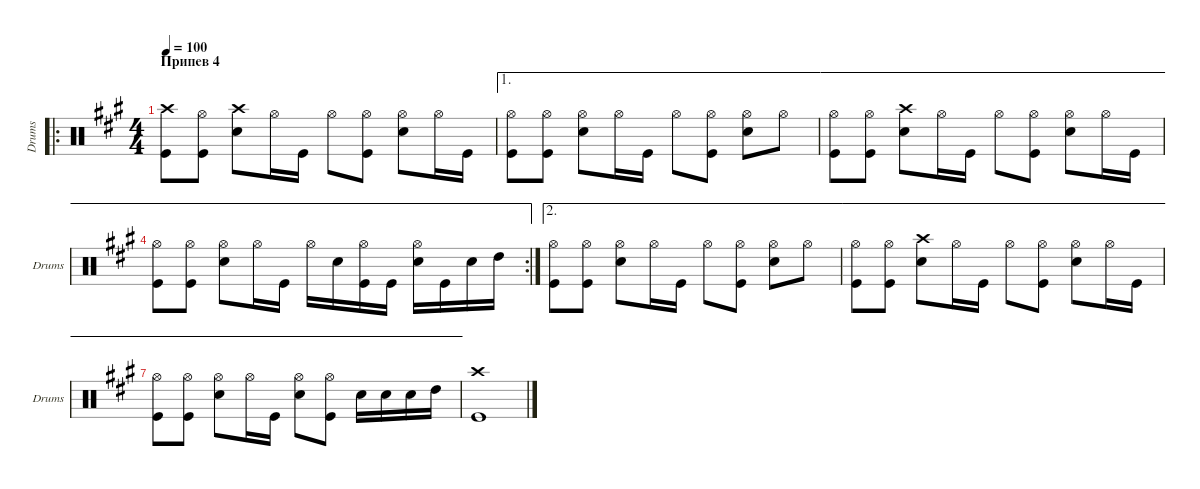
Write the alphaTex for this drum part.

\defaultSystemsLayout 4
\hideDynamics
\bracketExtendMode groupsimilarinstruments
\singleTrackTrackNamePolicy allsystems
\multiTrackTrackNamePolicy allsystems
\otherSystemsTrackNameOrientation horizontal
\defaultBarNumberDisplay FirstOfSystem
\track ("Drumkit" "Drums") {instrument percussion}
\staff {score}
\articulation defaults
\ro
\ts (4 4)
\section ("" "Припев 4")
\tempo 100
\clef neutral
\ks f#minor
("Kick (hit)" "Crash high (hit)").8{dy f} ("Kick (hit)" "Hi-Hat (open)").8 ("Snare (hit) 2" "Crash high (hit)").8 "Hi-Hat (open)".16 "Kick (hit)".16 "Hi-Hat (open)".8 ("Kick (hit)" "Hi-Hat (open)").8 ("Snare (hit) 2" "Hi-Hat (open)").8 "Hi-Hat (open)".16 "Kick (hit)".16 |
\ae 1
("Kick (hit)" "Hi-Hat (open)").8 ("Kick (hit)" "Hi-Hat (open)").8 ("Snare (hit) 2" "Hi-Hat (open)").8 "Hi-Hat (open)".16 "Kick (hit)".16 "Hi-Hat (open)".8 ("Kick (hit)" "Hi-Hat (open)").8 ("Snare (hit) 2" "Hi-Hat (open)").8 "Hi-Hat (open)".8 |
\ae 1
("Kick (hit)" "Hi-Hat (open)").8 ("Kick (hit)" "Hi-Hat (open)").8 ("Snare (hit) 2" "Crash high (hit)").8 "Hi-Hat (open)".16 "Kick (hit)".16 "Hi-Hat (open)".8 ("Kick (hit)" "Hi-Hat (open)").8 ("Snare (hit) 2" "Hi-Hat (open)").8 "Hi-Hat (open)".16 "Kick (hit)".16 |
\ae 1
\rc 2
("Kick (hit)" "Hi-Hat (open)").8 ("Kick (hit)" "Hi-Hat (open)").8 ("Snare (hit) 2" "Hi-Hat (open)").8 "Hi-Hat (open)".16 "Kick (hit)".16 "Hi-Hat (open)".16 "Snare (hit) 2".16 ("Kick (hit)" "Hi-Hat (open)").16 "Kick (hit)".16 ("Snare (hit) 2" "Hi-Hat (open)").16 "Kick (hit)".16 "Snare (hit) 2".16 "High Tom (hit)".16 |
\ae 2
("Kick (hit)" "Hi-Hat (open)").8 ("Kick (hit)" "Hi-Hat (open)").8 ("Snare (hit) 2" "Hi-Hat (open)").8 "Hi-Hat (open)".16 "Kick (hit)".16 "Hi-Hat (open)".8 ("Kick (hit)" "Hi-Hat (open)").8 ("Snare (hit) 2" "Hi-Hat (open)").8 "Hi-Hat (open)".8 |
\ae 2
("Kick (hit)" "Hi-Hat (open)").8 ("Kick (hit)" "Hi-Hat (open)").8 ("Snare (hit) 2" "Crash high (hit)").8 "Hi-Hat (open)".16 "Kick (hit)".16 "Hi-Hat (open)".8 ("Kick (hit)" "Hi-Hat (open)").8 ("Snare (hit) 2" "Hi-Hat (open)").8 "Hi-Hat (open)".16 "Kick (hit)".16 |
\ae 2
("Kick (hit)" "Hi-Hat (open)").8 ("Kick (hit)" "Hi-Hat (open)").8 ("Snare (hit) 2" "Hi-Hat (open)").8 "Hi-Hat (open)".16 "Kick (hit)".16 ("Hi-Hat (open)" "Snare (hit) 2").8 ("Kick (hit)" "Hi-Hat (open)").8 "Snare (hit) 2".16 "Snare (hit) 2".16 "Snare (hit) 2".16 "High Tom (hit)".16 |
("Kick (hit)" "Crash high (hit)").1
